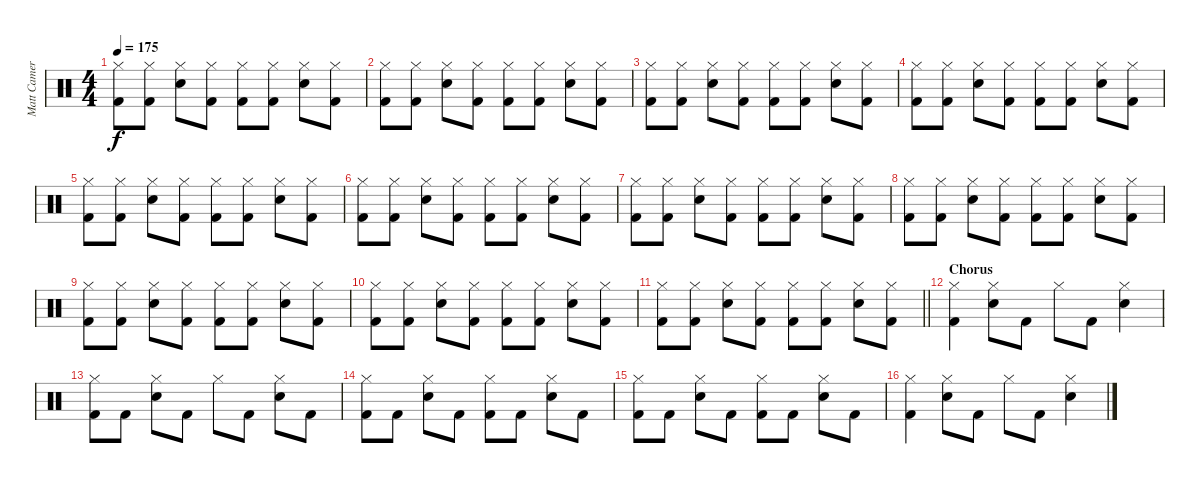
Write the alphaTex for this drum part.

\track ("Matt Cameron" "Matt Camer") {instrument percussion}
\staff {score}
\articulation defaults
\ts (4 4)
\tempo 175
\clef neutral
\ks c
("Hi-Hat (closed)" "Kick (hit) 2").8{dy f} ("Hi-Hat (closed)" "Kick (hit) 2").8 ("Hi-Hat (closed)" "Electric Snare (hit)").8 ("Hi-Hat (closed)" "Kick (hit) 2").8 ("Hi-Hat (closed)" "Kick (hit) 2").8 ("Hi-Hat (closed)" "Kick (hit) 2").8 ("Hi-Hat (closed)" "Electric Snare (hit)").8 ("Hi-Hat (closed)" "Kick (hit) 2").8 |
("Hi-Hat (closed)" "Kick (hit) 2").8 ("Hi-Hat (closed)" "Kick (hit) 2").8 ("Hi-Hat (closed)" "Electric Snare (hit)").8 ("Hi-Hat (closed)" "Kick (hit) 2").8 ("Hi-Hat (closed)" "Kick (hit) 2").8 ("Hi-Hat (closed)" "Kick (hit) 2").8 ("Hi-Hat (closed)" "Electric Snare (hit)").8 ("Hi-Hat (closed)" "Kick (hit) 2").8 |
("Hi-Hat (closed)" "Kick (hit) 2").8 ("Hi-Hat (closed)" "Kick (hit) 2").8 ("Hi-Hat (closed)" "Electric Snare (hit)").8 ("Hi-Hat (closed)" "Kick (hit) 2").8 ("Hi-Hat (closed)" "Kick (hit) 2").8 ("Hi-Hat (closed)" "Kick (hit) 2").8 ("Hi-Hat (closed)" "Electric Snare (hit)").8 ("Hi-Hat (closed)" "Kick (hit) 2").8 |
("Hi-Hat (closed)" "Kick (hit) 2").8 ("Hi-Hat (closed)" "Kick (hit) 2").8 ("Hi-Hat (closed)" "Electric Snare (hit)").8 ("Hi-Hat (closed)" "Kick (hit) 2").8 ("Hi-Hat (closed)" "Kick (hit) 2").8 ("Hi-Hat (closed)" "Kick (hit) 2").8 ("Hi-Hat (closed)" "Electric Snare (hit)").8 ("Hi-Hat (closed)" "Kick (hit) 2").8 |
("Hi-Hat (closed)" "Kick (hit) 2").8 ("Hi-Hat (closed)" "Kick (hit) 2").8 ("Hi-Hat (closed)" "Electric Snare (hit)").8 ("Hi-Hat (closed)" "Kick (hit) 2").8 ("Hi-Hat (closed)" "Kick (hit) 2").8 ("Hi-Hat (closed)" "Kick (hit) 2").8 ("Hi-Hat (closed)" "Electric Snare (hit)").8 ("Hi-Hat (closed)" "Kick (hit) 2").8 |
("Hi-Hat (closed)" "Kick (hit) 2").8 ("Hi-Hat (closed)" "Kick (hit) 2").8 ("Hi-Hat (closed)" "Electric Snare (hit)").8 ("Hi-Hat (closed)" "Kick (hit) 2").8 ("Hi-Hat (closed)" "Kick (hit) 2").8 ("Hi-Hat (closed)" "Kick (hit) 2").8 ("Hi-Hat (closed)" "Electric Snare (hit)").8 ("Hi-Hat (closed)" "Kick (hit) 2").8 |
("Hi-Hat (closed)" "Kick (hit) 2").8 ("Hi-Hat (closed)" "Kick (hit) 2").8 ("Hi-Hat (closed)" "Electric Snare (hit)").8 ("Hi-Hat (closed)" "Kick (hit) 2").8 ("Hi-Hat (closed)" "Kick (hit) 2").8 ("Hi-Hat (closed)" "Kick (hit) 2").8 ("Hi-Hat (closed)" "Electric Snare (hit)").8 ("Hi-Hat (closed)" "Kick (hit) 2").8 |
("Hi-Hat (closed)" "Kick (hit) 2").8 ("Hi-Hat (closed)" "Kick (hit) 2").8 ("Hi-Hat (closed)" "Electric Snare (hit)").8 ("Hi-Hat (closed)" "Kick (hit) 2").8 ("Hi-Hat (closed)" "Kick (hit) 2").8 ("Hi-Hat (closed)" "Kick (hit) 2").8 ("Hi-Hat (closed)" "Electric Snare (hit)").8 ("Hi-Hat (closed)" "Kick (hit) 2").8 |
("Hi-Hat (closed)" "Kick (hit) 2").8 ("Hi-Hat (closed)" "Kick (hit) 2").8 ("Hi-Hat (closed)" "Electric Snare (hit)").8 ("Hi-Hat (closed)" "Kick (hit) 2").8 ("Hi-Hat (closed)" "Kick (hit) 2").8 ("Hi-Hat (closed)" "Kick (hit) 2").8 ("Hi-Hat (closed)" "Electric Snare (hit)").8 ("Hi-Hat (closed)" "Kick (hit) 2").8 |
("Hi-Hat (closed)" "Kick (hit) 2").8 ("Hi-Hat (closed)" "Kick (hit) 2").8 ("Hi-Hat (closed)" "Electric Snare (hit)").8 ("Hi-Hat (closed)" "Kick (hit) 2").8 ("Hi-Hat (closed)" "Kick (hit) 2").8 ("Hi-Hat (closed)" "Kick (hit) 2").8 ("Hi-Hat (closed)" "Electric Snare (hit)").8 ("Hi-Hat (closed)" "Kick (hit) 2").8 |
\barLineRight lightlight
("Hi-Hat (closed)" "Kick (hit) 2").8 ("Hi-Hat (closed)" "Kick (hit) 2").8 ("Hi-Hat (closed)" "Electric Snare (hit)").8 ("Hi-Hat (closed)" "Kick (hit) 2").8 ("Hi-Hat (closed)" "Kick (hit) 2").8 ("Hi-Hat (closed)" "Kick (hit) 2").8 ("Hi-Hat (closed)" "Electric Snare (hit)").8 ("Hi-Hat (closed)" "Kick (hit) 2").8 |
\section ("" "Chorus")
("Hi-Hat (closed)" "Kick (hit) 2").4 ("Hi-Hat (closed)" "Electric Snare (hit)").8 "Kick (hit) 2".8 "Hi-Hat (closed)".8 "Kick (hit) 2".8 ("Hi-Hat (closed)" "Electric Snare (hit)").4 |
("Hi-Hat (closed)" "Kick (hit) 2").8 "Kick (hit) 2".8 ("Hi-Hat (closed)" "Electric Snare (hit)").8 "Kick (hit) 2".8 "Hi-Hat (closed)".8 "Kick (hit) 2".8 ("Hi-Hat (closed)" "Electric Snare (hit)").8 "Kick (hit) 2".8 |
("Hi-Hat (closed)" "Kick (hit) 2").8 "Kick (hit) 2".8 ("Hi-Hat (closed)" "Electric Snare (hit)").8 "Kick (hit) 2".8 ("Hi-Hat (closed)" "Kick (hit) 2").8 "Kick (hit) 2".8 ("Hi-Hat (closed)" "Electric Snare (hit)").8 "Kick (hit) 2".8 |
("Hi-Hat (closed)" "Kick (hit) 2").8 "Kick (hit) 2".8 ("Hi-Hat (closed)" "Electric Snare (hit)").8 "Kick (hit) 2".8 ("Hi-Hat (closed)" "Kick (hit) 2").8 "Kick (hit) 2".8 ("Hi-Hat (closed)" "Electric Snare (hit)").8 "Kick (hit) 2".8 |
("Hi-Hat (closed)" "Kick (hit) 2").4 ("Hi-Hat (closed)" "Electric Snare (hit)").8 "Kick (hit) 2".8 "Hi-Hat (closed)".8 "Kick (hit) 2".8 ("Hi-Hat (closed)" "Electric Snare (hit)").4
